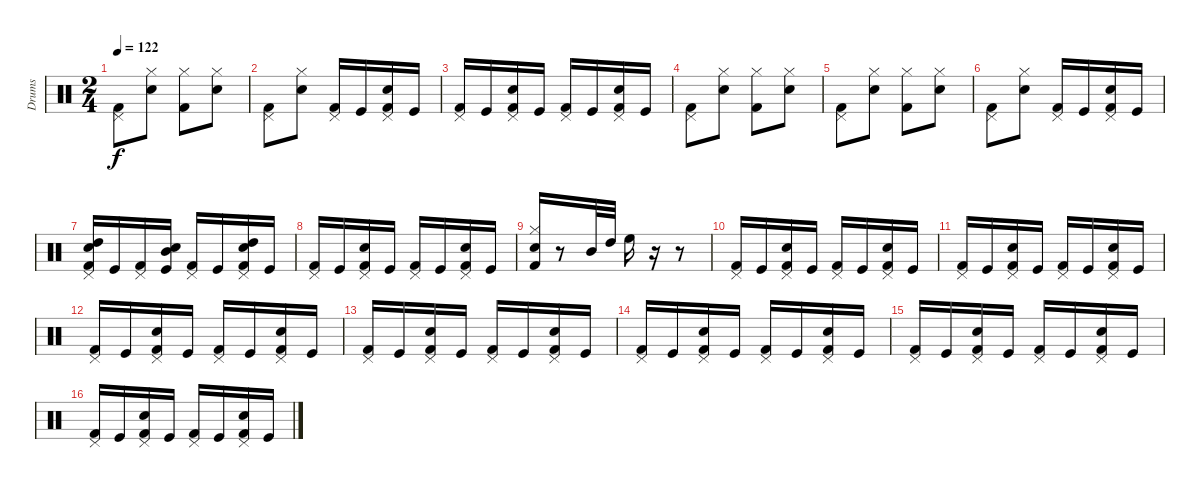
\track ("Drums" "Drums") {instrument percussion}
\staff {score}
\articulation defaults
\ts (2 4)
\tempo 122
\clef neutral
\ks c
("Pedal Hi-Hat (hit)" "Kick (hit) 2").8{dy f} ("Hi-Hat (closed)" "Snare (hit) 2").8 ("Hi-Hat (closed)" "Kick (hit) 2").8 ("Hi-Hat (closed)" "Snare (hit) 2").8 |
("Pedal Hi-Hat (hit)" "Kick (hit) 2").8 ("Hi-Hat (closed)" "Snare (hit) 2").8 ("Pedal Hi-Hat (hit)" "Kick (hit) 2").16 "Kick (hit)".16 ("Pedal Hi-Hat (hit)" "Snare (hit) 2" "Kick (hit) 2").16 "Kick (hit)".16 |
("Pedal Hi-Hat (hit)" "Kick (hit) 2").16 "Kick (hit)".16 ("Pedal Hi-Hat (hit)" "Snare (hit) 2" "Kick (hit) 2").16 "Kick (hit)".16 ("Pedal Hi-Hat (hit)" "Kick (hit) 2").16 "Kick (hit)".16 ("Pedal Hi-Hat (hit)" "Snare (hit) 2" "Kick (hit) 2").16 "Kick (hit)".16 |
("Pedal Hi-Hat (hit)" "Kick (hit) 2").8 ("Hi-Hat (closed)" "Snare (hit) 2").8 ("Hi-Hat (closed)" "Kick (hit) 2").8 ("Hi-Hat (closed)" "Snare (hit) 2").8 |
("Pedal Hi-Hat (hit)" "Kick (hit) 2").8 ("Hi-Hat (closed)" "Snare (hit) 2").8 ("Hi-Hat (closed)" "Kick (hit) 2").8 ("Hi-Hat (closed)" "Snare (hit) 2").8 |
("Pedal Hi-Hat (hit)" "Kick (hit) 2").8 ("Hi-Hat (closed)" "Snare (hit) 2").8 ("Pedal Hi-Hat (hit)" "Kick (hit) 2").16 "Kick (hit)".16 ("Pedal Hi-Hat (hit)" "Snare (hit) 2" "Kick (hit) 2").16 "Kick (hit)".16 |
("Pedal Hi-Hat (hit)" "High Tom (hit)" "Snare (hit) 2" "Kick (hit) 2").16 "Kick (hit)".16 ("Pedal Hi-Hat (hit)" "Kick (hit) 2").16 ("Mid Tom (hit)" "Snare (hit) 2" "Kick (hit)").16 ("Pedal Hi-Hat (hit)" "Kick (hit) 2").16 "Kick (hit)".16 ("Pedal Hi-Hat (hit)" "High Tom (hit)" "Snare (hit) 2" "Kick (hit) 2").16 "Kick (hit)".16 |
("Pedal Hi-Hat (hit)" "Kick (hit) 2").16 "Kick (hit)".16 ("Pedal Hi-Hat (hit)" "Snare (hit) 2" "Kick (hit) 2").16 "Kick (hit)".16 ("Pedal Hi-Hat (hit)" "Kick (hit) 2").16 "Kick (hit)".16 ("Pedal Hi-Hat (hit)" "Snare (hit) 2" "Kick (hit) 2").16 "Kick (hit)".16 |
("Hi-Hat (closed)" "Snare (hit) 2" "Kick (hit) 2").16 r.8 "Mid Tom (hit)".32 "High Tom (hit)".32 "High Floor Tom (hit)".16 r.16 r.8 |
("Pedal Hi-Hat (hit)" "Kick (hit) 2").16 "Kick (hit)".16 ("Pedal Hi-Hat (hit)" "Snare (hit) 2" "Kick (hit) 2").16 "Kick (hit)".16 ("Pedal Hi-Hat (hit)" "Kick (hit) 2").16 "Kick (hit)".16 ("Pedal Hi-Hat (hit)" "Snare (hit) 2" "Kick (hit) 2").16 "Kick (hit)".16 |
("Pedal Hi-Hat (hit)" "Kick (hit) 2").16 "Kick (hit)".16 ("Pedal Hi-Hat (hit)" "Snare (hit) 2" "Kick (hit) 2").16 "Kick (hit)".16 ("Pedal Hi-Hat (hit)" "Kick (hit) 2").16 "Kick (hit)".16 ("Pedal Hi-Hat (hit)" "Snare (hit) 2" "Kick (hit) 2").16 "Kick (hit)".16 |
("Pedal Hi-Hat (hit)" "Kick (hit) 2").16 "Kick (hit)".16 ("Pedal Hi-Hat (hit)" "Snare (hit) 2" "Kick (hit) 2").16 "Kick (hit)".16 ("Pedal Hi-Hat (hit)" "Kick (hit) 2").16 "Kick (hit)".16 ("Pedal Hi-Hat (hit)" "Snare (hit) 2" "Kick (hit) 2").16 "Kick (hit)".16 |
("Pedal Hi-Hat (hit)" "Kick (hit) 2").16 "Kick (hit)".16 ("Pedal Hi-Hat (hit)" "Snare (hit) 2" "Kick (hit) 2").16 "Kick (hit)".16 ("Pedal Hi-Hat (hit)" "Kick (hit) 2").16 "Kick (hit)".16 ("Pedal Hi-Hat (hit)" "Snare (hit) 2" "Kick (hit) 2").16 "Kick (hit)".16 |
("Pedal Hi-Hat (hit)" "Kick (hit) 2").16 "Kick (hit)".16 ("Pedal Hi-Hat (hit)" "Snare (hit) 2" "Kick (hit) 2").16 "Kick (hit)".16 ("Pedal Hi-Hat (hit)" "Kick (hit) 2").16 "Kick (hit)".16 ("Pedal Hi-Hat (hit)" "Snare (hit) 2" "Kick (hit) 2").16 "Kick (hit)".16 |
("Pedal Hi-Hat (hit)" "Kick (hit) 2").16 "Kick (hit)".16 ("Pedal Hi-Hat (hit)" "Snare (hit) 2" "Kick (hit) 2").16 "Kick (hit)".16 ("Pedal Hi-Hat (hit)" "Kick (hit) 2").16 "Kick (hit)".16 ("Pedal Hi-Hat (hit)" "Snare (hit) 2" "Kick (hit) 2").16 "Kick (hit)".16 |
("Pedal Hi-Hat (hit)" "Kick (hit) 2").16 "Kick (hit)".16 ("Pedal Hi-Hat (hit)" "Snare (hit) 2" "Kick (hit) 2").16 "Kick (hit)".16 ("Pedal Hi-Hat (hit)" "Kick (hit) 2").16 "Kick (hit)".16 ("Pedal Hi-Hat (hit)" "Snare (hit) 2" "Kick (hit) 2").16 "Kick (hit)".16
